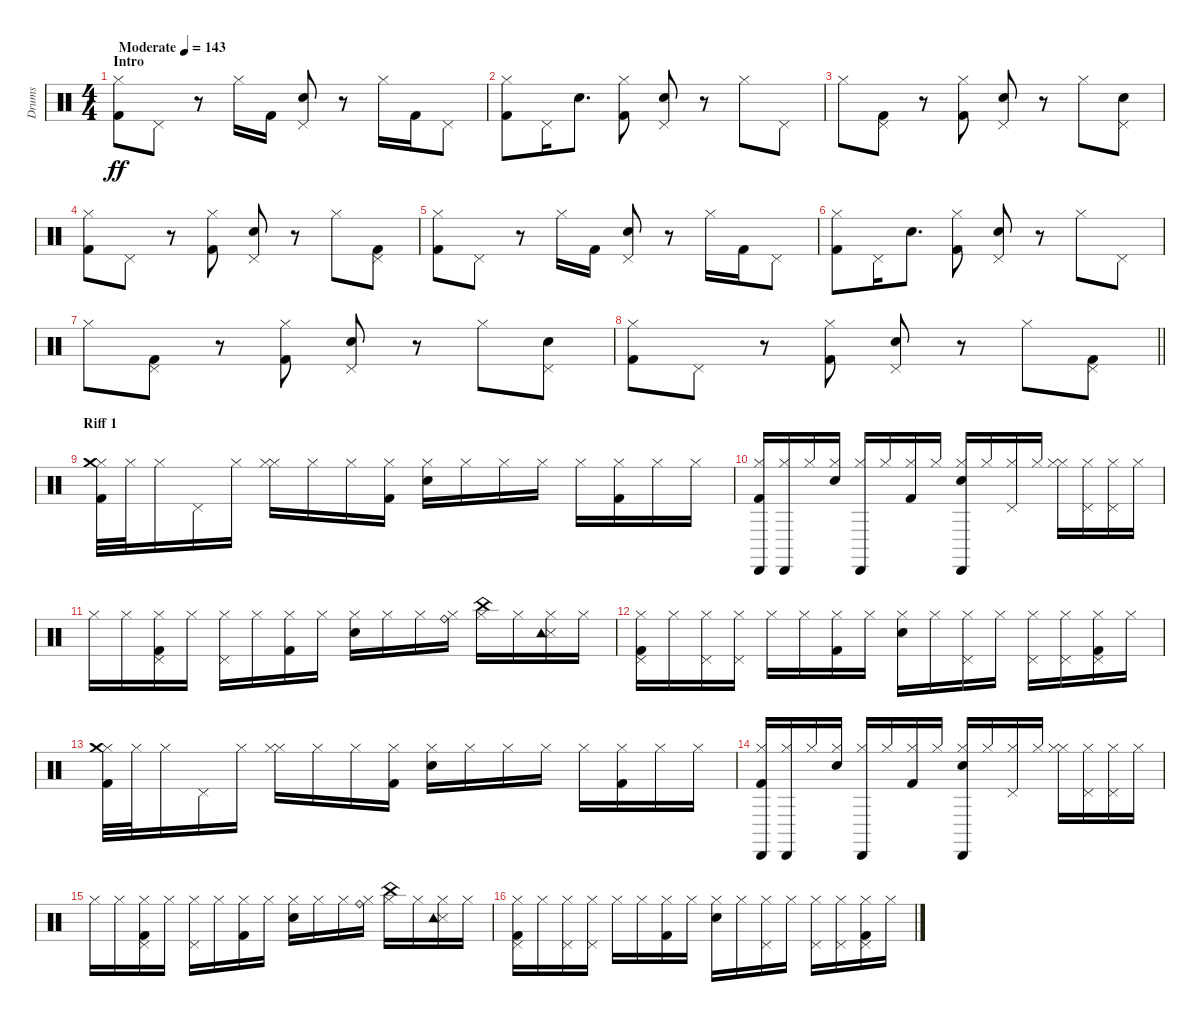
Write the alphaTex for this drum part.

\track ("Drums" "Drums") {instrument percussion}
\staff {score}
\articulation defaults
\ts (4 4)
\section ("" "Intro")
\tempo (143 "Moderate")
\clef neutral
\ks c
("Kick (hit) 2" "Hi-Hat (closed)").8{dy ff} "Pedal Hi-Hat (hit)".8 r.8 "Hi-Hat (closed)".16 "Kick (hit) 2".16 ("Snare (hit) 2" "Pedal Hi-Hat (hit)").8 r.8 "Hi-Hat (closed)".16 "Kick (hit) 2".16 "Pedal Hi-Hat (hit)".8 |
("Kick (hit) 2" "Hi-Hat (closed)").8 "Pedal Hi-Hat (hit)".16 "Snare (hit) 2".8{d} ("Kick (hit) 2" "Hi-Hat (closed)").8 ("Snare (hit) 2" "Pedal Hi-Hat (hit)").8 r.8 "Hi-Hat (closed)".8 "Pedal Hi-Hat (hit)".8 |
"Hi-Hat (closed)".8 ("Kick (hit) 2" "Pedal Hi-Hat (hit)").8 r.8 ("Kick (hit) 2" "Hi-Hat (closed)").8 ("Snare (hit) 2" "Pedal Hi-Hat (hit)").8 r.8 "Hi-Hat (closed)".8 ("Snare (hit) 2" "Pedal Hi-Hat (hit)").8 |
("Kick (hit) 2" "Hi-Hat (closed)").8 "Pedal Hi-Hat (hit)".8 r.8 ("Kick (hit) 2" "Hi-Hat (closed)").8 ("Snare (hit) 2" "Pedal Hi-Hat (hit)").8 r.8 "Hi-Hat (closed)".8 ("Kick (hit) 2" "Pedal Hi-Hat (hit)").8 |
("Kick (hit) 2" "Hi-Hat (closed)").8 "Pedal Hi-Hat (hit)".8 r.8 "Hi-Hat (closed)".16 "Kick (hit) 2".16 ("Snare (hit) 2" "Pedal Hi-Hat (hit)").8 r.8 "Hi-Hat (closed)".16 "Kick (hit) 2".16 "Pedal Hi-Hat (hit)".8 |
("Kick (hit) 2" "Hi-Hat (closed)").8 "Pedal Hi-Hat (hit)".16 "Snare (hit) 2".8{d} ("Kick (hit) 2" "Hi-Hat (closed)").8 ("Snare (hit) 2" "Pedal Hi-Hat (hit)").8 r.8 "Hi-Hat (closed)".8 "Pedal Hi-Hat (hit)".8 |
"Hi-Hat (closed)".8 ("Kick (hit) 2" "Pedal Hi-Hat (hit)").8 r.8 ("Kick (hit) 2" "Hi-Hat (closed)").8 ("Snare (hit) 2" "Pedal Hi-Hat (hit)").8 r.8 "Hi-Hat (closed)".8 ("Snare (hit) 2" "Pedal Hi-Hat (hit)").8 |
\barLineRight lightlight
("Kick (hit) 2" "Hi-Hat (closed)").8 "Pedal Hi-Hat (hit)".8 r.8 ("Kick (hit) 2" "Hi-Hat (closed)").8 ("Snare (hit) 2" "Pedal Hi-Hat (hit)").8 r.8 "Hi-Hat (closed)".8 ("Kick (hit) 2" "Pedal Hi-Hat (hit)").8 |
\section ("" "Riff 1")
("Kick (hit) 2" "Hi-Hat (closed)" "Crash medium (hit)").32 "Hi-Hat (closed)".32 "Hi-Hat (closed)".16 "Pedal Hi-Hat (hit)".16 "Hi-Hat (closed)".16 ("Hi-Hat (closed)" "Hi-Hat (closed)").16 "Hi-Hat (closed)".16 "Hi-Hat (closed)".16 ("Kick (hit) 2" "Hi-Hat (closed)").16 ("Snare (hit) 2" "Hi-Hat (closed)").16 "Hi-Hat (closed)".16 "Hi-Hat (closed)".16 "Hi-Hat (closed)".16 "Hi-Hat (closed)".16 ("Kick (hit) 2" "Hi-Hat (closed)").16 "Hi-Hat (closed)".16 "Hi-Hat (closed)".16 |
("Kick (hit) 2" "Cabasa (hit)" "Hi-Hat (closed)").16 ("Cabasa (hit)" "Hi-Hat (closed)").16 "Hi-Hat (closed)".16 ("Snare (hit) 2" "Hi-Hat (closed)").16 ("Cabasa (hit)" "Hi-Hat (closed)").16 "Hi-Hat (closed)".16 ("Kick (hit) 2" "Hi-Hat (closed)").16 "Hi-Hat (closed)".16 ("Snare (hit) 2" "Cabasa (hit)" "Hi-Hat (closed)").16 "Hi-Hat (closed)".16 ("Pedal Hi-Hat (hit)" "Hi-Hat (closed)").16 "Hi-Hat (closed)".16 ("Hi-Hat (closed)" "Hi-Hat (closed)").16 ("Pedal Hi-Hat (hit)" "Hi-Hat (closed)").16 ("Pedal Hi-Hat (hit)" "Hi-Hat (closed)").16 "Hi-Hat (closed)".16 |
"Hi-Hat (closed)".16 "Hi-Hat (closed)".16 ("Kick (hit) 2" "Pedal Hi-Hat (hit)" "Hi-Hat (closed)").16 "Hi-Hat (closed)".16 ("Hi-Hat (closed)" "Pedal Hi-Hat (hit)").16 "Hi-Hat (closed)".16 ("Kick (hit) 2" "Hi-Hat (closed)").16 "Hi-Hat (closed)".16 ("Snare (hit) 2" "Hi-Hat (closed)").16 "Hi-Hat (closed)".16 "Hi-Hat (closed)".16 ("Ride (bell)" "Hi-Hat (closed)").16 ("China (hit)" "Hi-Hat (closed)").16 "Hi-Hat (closed)".16 ("Snare (side stick) 3" "Tambourine (hit)" "Hi-Hat (closed)").16 "Hi-Hat (closed)".16 |
("Kick (hit) 2" "Hi-Hat (closed)" "Pedal Hi-Hat (hit)").16 "Hi-Hat (closed)".16 ("Hi-Hat (closed)" "Pedal Hi-Hat (hit)").16 ("Hi-Hat (closed)" "Pedal Hi-Hat (hit)").16 "Hi-Hat (closed)".16 "Hi-Hat (closed)".16 ("Kick (hit) 2" "Hi-Hat (closed)").16 "Hi-Hat (closed)".16 ("Snare (hit) 2" "Hi-Hat (closed)").16 "Hi-Hat (closed)".16 ("Hi-Hat (closed)" "Pedal Hi-Hat (hit)").16 "Hi-Hat (closed)".16 ("Hi-Hat (closed)" "Pedal Hi-Hat (hit)").16 ("Hi-Hat (closed)" "Pedal Hi-Hat (hit)").16 ("Kick (hit) 2" "Hi-Hat (closed)" "Pedal Hi-Hat (hit)").16 "Hi-Hat (closed)".16 |
("Kick (hit) 2" "Hi-Hat (closed)" "Crash medium (hit)").32 "Hi-Hat (closed)".32 "Hi-Hat (closed)".16 "Pedal Hi-Hat (hit)".16 "Hi-Hat (closed)".16 ("Hi-Hat (closed)" "Hi-Hat (closed)").16 "Hi-Hat (closed)".16 "Hi-Hat (closed)".16 ("Kick (hit) 2" "Hi-Hat (closed)").16 ("Snare (hit) 2" "Hi-Hat (closed)").16 "Hi-Hat (closed)".16 "Hi-Hat (closed)".16 "Hi-Hat (closed)".16 "Hi-Hat (closed)".16 ("Kick (hit) 2" "Hi-Hat (closed)").16 "Hi-Hat (closed)".16 "Hi-Hat (closed)".16 |
("Kick (hit) 2" "Cabasa (hit)" "Hi-Hat (closed)").16 ("Cabasa (hit)" "Hi-Hat (closed)").16 "Hi-Hat (closed)".16 ("Snare (hit) 2" "Hi-Hat (closed)").16 ("Cabasa (hit)" "Hi-Hat (closed)").16 "Hi-Hat (closed)".16 ("Kick (hit) 2" "Hi-Hat (closed)").16 "Hi-Hat (closed)".16 ("Snare (hit) 2" "Cabasa (hit)" "Hi-Hat (closed)").16 "Hi-Hat (closed)".16 ("Pedal Hi-Hat (hit)" "Hi-Hat (closed)").16 "Hi-Hat (closed)".16 ("Hi-Hat (closed)" "Hi-Hat (closed)").16 ("Pedal Hi-Hat (hit)" "Hi-Hat (closed)").16 ("Pedal Hi-Hat (hit)" "Hi-Hat (closed)").16 "Hi-Hat (closed)".16 |
"Hi-Hat (closed)".16 "Hi-Hat (closed)".16 ("Kick (hit) 2" "Pedal Hi-Hat (hit)" "Hi-Hat (closed)").16 "Hi-Hat (closed)".16 ("Hi-Hat (closed)" "Pedal Hi-Hat (hit)").16 "Hi-Hat (closed)".16 ("Kick (hit) 2" "Hi-Hat (closed)").16 "Hi-Hat (closed)".16 ("Snare (hit) 2" "Hi-Hat (closed)").16 "Hi-Hat (closed)".16 "Hi-Hat (closed)".16 ("Ride (bell)" "Hi-Hat (closed)").16 ("China (hit)" "Hi-Hat (closed)").16 "Hi-Hat (closed)".16 ("Snare (side stick) 3" "Tambourine (hit)" "Hi-Hat (closed)").16 "Hi-Hat (closed)".16 |
("Kick (hit) 2" "Hi-Hat (closed)" "Pedal Hi-Hat (hit)").16 "Hi-Hat (closed)".16 ("Hi-Hat (closed)" "Pedal Hi-Hat (hit)").16 ("Hi-Hat (closed)" "Pedal Hi-Hat (hit)").16 "Hi-Hat (closed)".16 "Hi-Hat (closed)".16 ("Kick (hit) 2" "Hi-Hat (closed)").16 "Hi-Hat (closed)".16 ("Snare (hit) 2" "Hi-Hat (closed)").16 "Hi-Hat (closed)".16 ("Hi-Hat (closed)" "Pedal Hi-Hat (hit)").16 "Hi-Hat (closed)".16 ("Hi-Hat (closed)" "Pedal Hi-Hat (hit)").16 ("Hi-Hat (closed)" "Pedal Hi-Hat (hit)").16 ("Kick (hit) 2" "Hi-Hat (closed)" "Pedal Hi-Hat (hit)").16 "Hi-Hat (closed)".16
